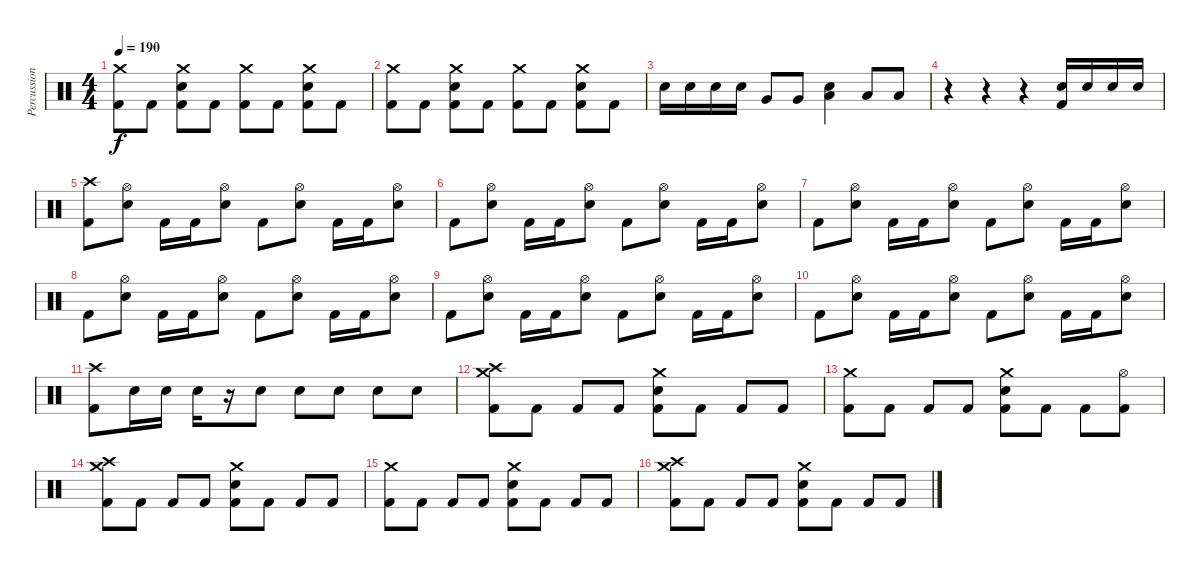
\track ("Percussion" "Percussion") {instrument percussion}
\staff {score}
\articulation defaults
\ts (4 4)
\tempo 190
\clef neutral
\ks c
("Crash medium (hit)" "Kick (hit) 2").8{dy f} "Kick (hit) 2".8 ("Crash medium (hit)" "Snare (hit) 2" "Kick (hit) 2").8 "Kick (hit) 2".8 ("Crash medium (hit)" "Kick (hit) 2").8 "Kick (hit) 2".8 ("Crash medium (hit)" "Snare (hit) 2" "Kick (hit) 2").8 "Kick (hit) 2".8 |
("Crash medium (hit)" "Kick (hit) 2").8 "Kick (hit) 2".8 ("Crash medium (hit)" "Snare (hit) 2" "Kick (hit) 2").8 "Kick (hit) 2".8 ("Crash medium (hit)" "Kick (hit) 2").8 "Kick (hit) 2".8 ("Crash medium (hit)" "Snare (hit) 2" "Kick (hit) 2").8 "Kick (hit) 2".8 |
"Snare (hit) 2".16 "Snare (hit) 2".16 "Snare (hit) 2".16 "Snare (hit) 2".16 "Very Low Tom (hit)".8 "Very Low Tom (hit)".8 ("Low Floor Tom (hit)" "Snare (hit) 2").4 "Low Floor Tom (hit)".8 "Low Floor Tom (hit)".8 |
r.4 r.4 r.4 ("Snare (hit) 2" "Kick (hit) 2").16 "Snare (hit) 2".16 "Snare (hit) 2".16 "Snare (hit) 2".16 |
("Crash high (hit)" "Kick (hit) 2").8 ("Hi-Hat (open)" "Snare (hit) 2").8 "Kick (hit) 2".16 "Kick (hit) 2".16 ("Hi-Hat (open)" "Snare (hit) 2").8 "Kick (hit) 2".8 ("Hi-Hat (open)" "Snare (hit) 2").8 "Kick (hit) 2".16 "Kick (hit) 2".16 ("Hi-Hat (open)" "Snare (hit) 2").8 |
"Kick (hit) 2".8 ("Hi-Hat (open)" "Snare (hit) 2").8 "Kick (hit) 2".16 "Kick (hit) 2".16 ("Hi-Hat (open)" "Snare (hit) 2").8 "Kick (hit) 2".8 ("Hi-Hat (open)" "Snare (hit) 2").8 "Kick (hit) 2".16 "Kick (hit) 2".16 ("Hi-Hat (open)" "Snare (hit) 2").8 |
"Kick (hit) 2".8 ("Hi-Hat (open)" "Snare (hit) 2").8 "Kick (hit) 2".16 "Kick (hit) 2".16 ("Hi-Hat (open)" "Snare (hit) 2").8 "Kick (hit) 2".8 ("Hi-Hat (open)" "Snare (hit) 2").8 "Kick (hit) 2".16 "Kick (hit) 2".16 ("Hi-Hat (open)" "Snare (hit) 2").8 |
"Kick (hit) 2".8 ("Hi-Hat (open)" "Snare (hit) 2").8 "Kick (hit) 2".16 "Kick (hit) 2".16 ("Hi-Hat (open)" "Snare (hit) 2").8 "Kick (hit) 2".8 ("Hi-Hat (open)" "Snare (hit) 2").8 "Kick (hit) 2".16 "Kick (hit) 2".16 ("Hi-Hat (open)" "Snare (hit) 2").8 |
"Kick (hit) 2".8 ("Hi-Hat (open)" "Snare (hit) 2").8 "Kick (hit) 2".16 "Kick (hit) 2".16 ("Hi-Hat (open)" "Snare (hit) 2").8 "Kick (hit) 2".8 ("Hi-Hat (open)" "Snare (hit) 2").8 "Kick (hit) 2".16 "Kick (hit) 2".16 ("Hi-Hat (open)" "Snare (hit) 2").8 |
"Kick (hit) 2".8 ("Hi-Hat (open)" "Snare (hit) 2").8 "Kick (hit) 2".16 "Kick (hit) 2".16 ("Hi-Hat (open)" "Snare (hit) 2").8 "Kick (hit) 2".8 ("Hi-Hat (open)" "Snare (hit) 2").8 "Kick (hit) 2".16 "Kick (hit) 2".16 ("Hi-Hat (open)" "Snare (hit) 2").8 |
("Crash high (hit)" "Kick (hit) 2").8 "Snare (hit) 2".16 "Snare (hit) 2".16 "Snare (hit) 2".16 r.16 "Snare (hit) 2".8 "Snare (hit) 2".8 "Snare (hit) 2".8 "Snare (hit) 2".8 "Snare (hit) 2".8 |
("Crash medium (hit)" "Crash high (hit)" "Kick (hit) 2").8 "Kick (hit) 2".8 "Kick (hit) 2".8 "Kick (hit) 2".8 ("Crash medium (hit)" "Snare (hit) 2" "Kick (hit) 2").8 "Kick (hit) 2".8 "Kick (hit) 2".8 "Kick (hit) 2".8 |
("Crash medium (hit)" "Kick (hit) 2").8 "Kick (hit) 2".8 "Kick (hit) 2".8 "Kick (hit) 2".8 ("Crash medium (hit)" "Snare (hit) 2" "Kick (hit) 2").8 "Kick (hit) 2".8 "Kick (hit) 2".8 ("Hi-Hat (open)" "Kick (hit) 2").8 |
("Crash medium (hit)" "Crash high (hit)" "Kick (hit) 2").8 "Kick (hit) 2".8 "Kick (hit) 2".8 "Kick (hit) 2".8 ("Crash medium (hit)" "Snare (hit) 2" "Kick (hit) 2").8 "Kick (hit) 2".8 "Kick (hit) 2".8 "Kick (hit) 2".8 |
("Crash medium (hit)" "Kick (hit) 2").8 "Kick (hit) 2".8 "Kick (hit) 2".8 "Kick (hit) 2".8 ("Crash medium (hit)" "Snare (hit) 2" "Kick (hit) 2").8 "Kick (hit) 2".8 "Kick (hit) 2".8 "Kick (hit) 2".8 |
("Crash medium (hit)" "Crash high (hit)" "Kick (hit) 2").8 "Kick (hit) 2".8 "Kick (hit) 2".8 "Kick (hit) 2".8 ("Crash medium (hit)" "Snare (hit) 2" "Kick (hit) 2").8 "Kick (hit) 2".8 "Kick (hit) 2".8 "Kick (hit) 2".8
